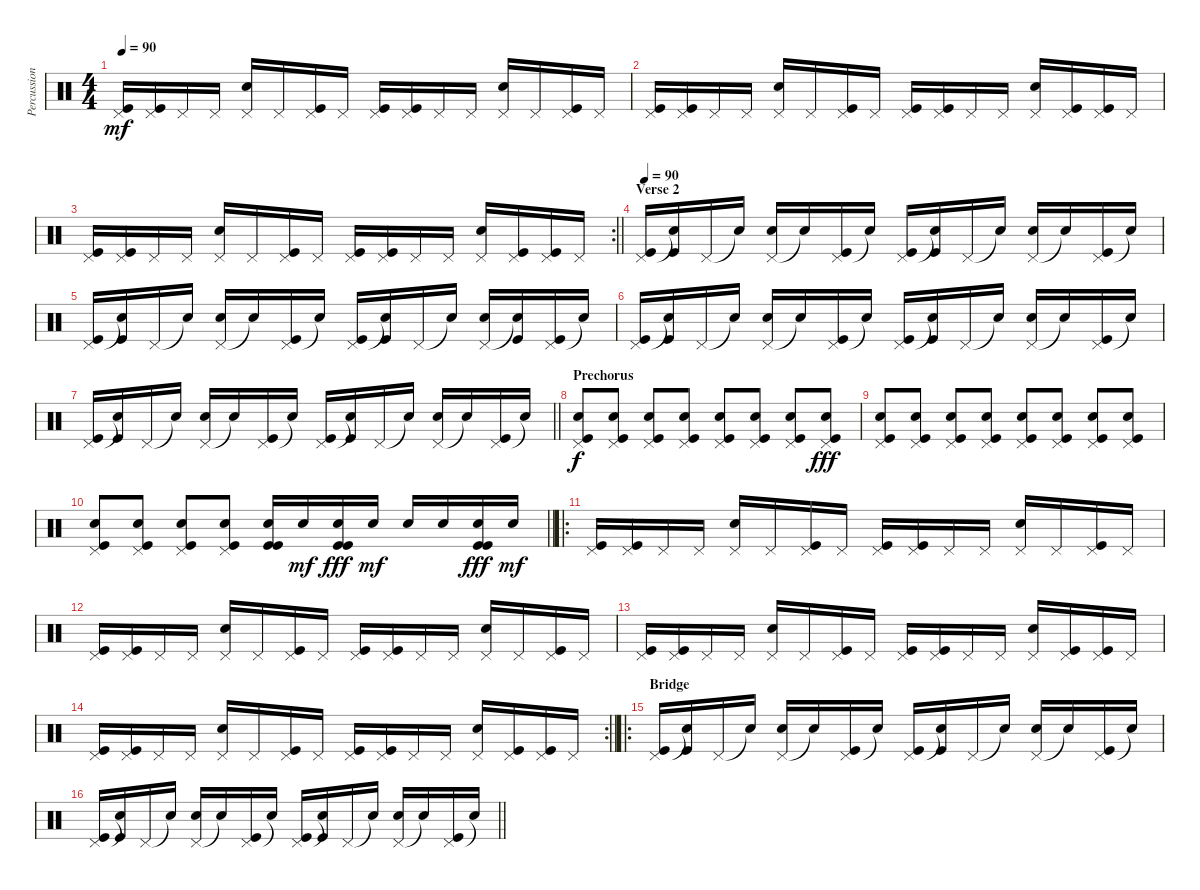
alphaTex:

\track ("Percussion" "Percussion") {instrument percussion}
\staff {score}
\articulation defaults
\ts (4 4)
\tempo 90
\clef neutral
\ks c
("Pedal Hi-Hat (hit)" "Kick (hit)").16{dy mf} ("Pedal Hi-Hat (hit)" "Kick (hit)").16 "Pedal Hi-Hat (hit)".16 "Pedal Hi-Hat (hit)".16 ("Pedal Hi-Hat (hit)" "Electric Snare (hit)").16 "Pedal Hi-Hat (hit)".16 ("Pedal Hi-Hat (hit)" "Kick (hit)").16 "Pedal Hi-Hat (hit)".16 ("Pedal Hi-Hat (hit)" "Kick (hit)").16 ("Pedal Hi-Hat (hit)" "Kick (hit)").16 "Pedal Hi-Hat (hit)".16 "Pedal Hi-Hat (hit)".16 ("Pedal Hi-Hat (hit)" "Electric Snare (hit)").16 "Pedal Hi-Hat (hit)".16 ("Pedal Hi-Hat (hit)" "Kick (hit)").16 "Pedal Hi-Hat (hit)".16 |
("Pedal Hi-Hat (hit)" "Kick (hit)").16 ("Pedal Hi-Hat (hit)" "Kick (hit)").16 "Pedal Hi-Hat (hit)".16 "Pedal Hi-Hat (hit)".16 ("Pedal Hi-Hat (hit)" "Electric Snare (hit)").16 "Pedal Hi-Hat (hit)".16 ("Pedal Hi-Hat (hit)" "Kick (hit)").16 "Pedal Hi-Hat (hit)".16 ("Pedal Hi-Hat (hit)" "Kick (hit)").16 ("Pedal Hi-Hat (hit)" "Kick (hit)").16 "Pedal Hi-Hat (hit)".16 "Pedal Hi-Hat (hit)".16 ("Pedal Hi-Hat (hit)" "Electric Snare (hit)").16 ("Pedal Hi-Hat (hit)" "Kick (hit)").16 ("Pedal Hi-Hat (hit)" "Kick (hit)").16 "Pedal Hi-Hat (hit)".16 |
\rc 2
\barLineRight lightlight
("Pedal Hi-Hat (hit)" "Kick (hit)").16 ("Pedal Hi-Hat (hit)" "Kick (hit)").16 "Pedal Hi-Hat (hit)".16 "Pedal Hi-Hat (hit)".16 ("Pedal Hi-Hat (hit)" "Electric Snare (hit)").16 "Pedal Hi-Hat (hit)".16 ("Pedal Hi-Hat (hit)" "Kick (hit)").16 "Pedal Hi-Hat (hit)".16 ("Pedal Hi-Hat (hit)" "Kick (hit)").16 ("Pedal Hi-Hat (hit)" "Kick (hit)").16 "Pedal Hi-Hat (hit)".16 "Pedal Hi-Hat (hit)".16 ("Pedal Hi-Hat (hit)" "Electric Snare (hit)").16 ("Pedal Hi-Hat (hit)" "Kick (hit)").16 ("Pedal Hi-Hat (hit)" "Kick (hit)").16 "Pedal Hi-Hat (hit)".16 |
\section ("" "Verse 2")
\tempo 90
("Pedal Hi-Hat (hit)" "Kick (hit)").16 ("Snare (hit)"{t} "Kick (hit)").16 "Pedal Hi-Hat (hit)".16 "Snare (hit)"{t}.16 ("Pedal Hi-Hat (hit)" "Electric Snare (hit)").16 "Snare (hit)"{t}.16 ("Pedal Hi-Hat (hit)" "Kick (hit)").16 "Snare (hit)"{t}.16 ("Pedal Hi-Hat (hit)" "Kick (hit)").16 ("Snare (hit)"{t} "Kick (hit)").16 "Pedal Hi-Hat (hit)".16 "Snare (hit)"{t}.16 ("Pedal Hi-Hat (hit)" "Electric Snare (hit)").16 "Snare (hit)"{t}.16 ("Pedal Hi-Hat (hit)" "Kick (hit)").16 "Snare (hit)"{t}.16 |
("Pedal Hi-Hat (hit)" "Kick (hit)").16 ("Snare (hit)"{t} "Kick (hit)").16 "Pedal Hi-Hat (hit)".16 "Snare (hit)"{t}.16 ("Pedal Hi-Hat (hit)" "Electric Snare (hit)").16 "Snare (hit)"{t}.16 ("Pedal Hi-Hat (hit)" "Kick (hit)").16 "Snare (hit)"{t}.16 ("Pedal Hi-Hat (hit)" "Kick (hit)").16 ("Snare (hit)"{t} "Kick (hit)").16 "Pedal Hi-Hat (hit)".16 "Snare (hit)"{t}.16 ("Pedal Hi-Hat (hit)" "Electric Snare (hit)").16 ("Snare (hit)"{t} "Kick (hit)").16 ("Pedal Hi-Hat (hit)" "Kick (hit)").16 "Snare (hit)"{t}.16 |
("Pedal Hi-Hat (hit)" "Kick (hit)").16 ("Snare (hit)"{t} "Kick (hit)").16 "Pedal Hi-Hat (hit)".16 "Snare (hit)"{t}.16 ("Pedal Hi-Hat (hit)" "Electric Snare (hit)").16 "Snare (hit)"{t}.16 ("Pedal Hi-Hat (hit)" "Kick (hit)").16 "Snare (hit)"{t}.16 ("Pedal Hi-Hat (hit)" "Kick (hit)").16 ("Snare (hit)"{t} "Kick (hit)").16 "Pedal Hi-Hat (hit)".16 "Snare (hit)"{t}.16 ("Pedal Hi-Hat (hit)" "Electric Snare (hit)").16 "Snare (hit)"{t}.16 ("Pedal Hi-Hat (hit)" "Kick (hit)").16 "Snare (hit)"{t}.16 |
\barLineRight lightlight
("Pedal Hi-Hat (hit)" "Kick (hit)").16 ("Snare (hit)"{t} "Kick (hit)").16 "Pedal Hi-Hat (hit)".16 "Snare (hit)"{t}.16 ("Pedal Hi-Hat (hit)" "Electric Snare (hit)").16 "Snare (hit)"{t}.16 ("Pedal Hi-Hat (hit)" "Kick (hit)").16 "Snare (hit)"{t}.16 ("Pedal Hi-Hat (hit)" "Kick (hit)").16 ("Snare (hit)"{t} "Kick (hit)").16 "Pedal Hi-Hat (hit)".16 "Snare (hit)"{t}.16 ("Pedal Hi-Hat (hit)" "Electric Snare (hit)").16 "Snare (hit)"{t}.16 ("Pedal Hi-Hat (hit)" "Kick (hit)").16 "Snare (hit)"{t}.16 |
\section ("" "Prechorus")
("Pedal Hi-Hat (hit)" "Electric Snare (hit)" "Kick (hit)").8{dy f} ("Pedal Hi-Hat (hit)" "Electric Snare (hit)" "Kick (hit)").8 ("Pedal Hi-Hat (hit)" "Electric Snare (hit)" "Kick (hit)").8 ("Pedal Hi-Hat (hit)" "Electric Snare (hit)" "Kick (hit)").8 ("Pedal Hi-Hat (hit)" "Electric Snare (hit)" "Kick (hit)").8 ("Pedal Hi-Hat (hit)" "Electric Snare (hit)" "Kick (hit)").8 ("Pedal Hi-Hat (hit)" "Electric Snare (hit)" "Kick (hit)").8 ("Pedal Hi-Hat (hit)" "Electric Snare (hit)" "Kick (hit)").8{dy fff} |
("Pedal Hi-Hat (hit)" "Electric Snare (hit)" "Kick (hit)").8 ("Pedal Hi-Hat (hit)" "Electric Snare (hit)" "Kick (hit)").8 ("Pedal Hi-Hat (hit)" "Electric Snare (hit)" "Kick (hit)").8 ("Pedal Hi-Hat (hit)" "Electric Snare (hit)" "Kick (hit)").8 ("Pedal Hi-Hat (hit)" "Electric Snare (hit)" "Kick (hit)").8 ("Pedal Hi-Hat (hit)" "Electric Snare (hit)" "Kick (hit)").8 ("Pedal Hi-Hat (hit)" "Electric Snare (hit)" "Kick (hit)").8 ("Pedal Hi-Hat (hit)" "Electric Snare (hit)" "Kick (hit)").8 |
\barLineRight lightlight
("Pedal Hi-Hat (hit)" "Electric Snare (hit)" "Kick (hit)").8 ("Pedal Hi-Hat (hit)" "Electric Snare (hit)" "Kick (hit)").8 ("Pedal Hi-Hat (hit)" "Electric Snare (hit)" "Kick (hit)").8 ("Pedal Hi-Hat (hit)" "Electric Snare (hit)" "Kick (hit)").8 ("Electric Snare (hit)" "Kick (hit)" "Kick (hit)").16 "Electric Snare (hit)".16{dy mf} ("Electric Snare (hit)" "Kick (hit)" "Kick (hit)").16{dy fff} "Electric Snare (hit)".16{dy mf} "Electric Snare (hit)".16 "Electric Snare (hit)".16 ("Electric Snare (hit)" "Kick (hit)" "Kick (hit)").16{dy fff} "Electric Snare (hit)".16{dy mf} |
\ro
("Pedal Hi-Hat (hit)" "Kick (hit)").16 ("Pedal Hi-Hat (hit)" "Kick (hit)").16 "Pedal Hi-Hat (hit)".16 "Pedal Hi-Hat (hit)".16 ("Pedal Hi-Hat (hit)" "Electric Snare (hit)").16 "Pedal Hi-Hat (hit)".16 ("Pedal Hi-Hat (hit)" "Kick (hit)").16 "Pedal Hi-Hat (hit)".16 ("Pedal Hi-Hat (hit)" "Kick (hit)").16 ("Pedal Hi-Hat (hit)" "Kick (hit)").16 "Pedal Hi-Hat (hit)".16 "Pedal Hi-Hat (hit)".16 ("Pedal Hi-Hat (hit)" "Electric Snare (hit)").16 "Pedal Hi-Hat (hit)".16 ("Pedal Hi-Hat (hit)" "Kick (hit)").16 "Pedal Hi-Hat (hit)".16 |
("Pedal Hi-Hat (hit)" "Kick (hit)").16 ("Pedal Hi-Hat (hit)" "Kick (hit)").16 "Pedal Hi-Hat (hit)".16 "Pedal Hi-Hat (hit)".16 ("Pedal Hi-Hat (hit)" "Electric Snare (hit)").16 "Pedal Hi-Hat (hit)".16 ("Pedal Hi-Hat (hit)" "Kick (hit)").16 "Pedal Hi-Hat (hit)".16 ("Pedal Hi-Hat (hit)" "Kick (hit)").16 ("Pedal Hi-Hat (hit)" "Kick (hit)").16 "Pedal Hi-Hat (hit)".16 "Pedal Hi-Hat (hit)".16 ("Pedal Hi-Hat (hit)" "Electric Snare (hit)").16 "Pedal Hi-Hat (hit)".16 ("Pedal Hi-Hat (hit)" "Kick (hit)").16 "Pedal Hi-Hat (hit)".16 |
("Pedal Hi-Hat (hit)" "Kick (hit)").16 ("Pedal Hi-Hat (hit)" "Kick (hit)").16 "Pedal Hi-Hat (hit)".16 "Pedal Hi-Hat (hit)".16 ("Pedal Hi-Hat (hit)" "Electric Snare (hit)").16 "Pedal Hi-Hat (hit)".16 ("Pedal Hi-Hat (hit)" "Kick (hit)").16 "Pedal Hi-Hat (hit)".16 ("Pedal Hi-Hat (hit)" "Kick (hit)").16 ("Pedal Hi-Hat (hit)" "Kick (hit)").16 "Pedal Hi-Hat (hit)".16 "Pedal Hi-Hat (hit)".16 ("Pedal Hi-Hat (hit)" "Electric Snare (hit)").16 ("Pedal Hi-Hat (hit)" "Kick (hit)").16 ("Pedal Hi-Hat (hit)" "Kick (hit)").16 "Pedal Hi-Hat (hit)".16 |
\rc 2
\barLineRight lightlight
("Pedal Hi-Hat (hit)" "Kick (hit)").16 ("Pedal Hi-Hat (hit)" "Kick (hit)").16 "Pedal Hi-Hat (hit)".16 "Pedal Hi-Hat (hit)".16 ("Pedal Hi-Hat (hit)" "Electric Snare (hit)").16 "Pedal Hi-Hat (hit)".16 ("Pedal Hi-Hat (hit)" "Kick (hit)").16 "Pedal Hi-Hat (hit)".16 ("Pedal Hi-Hat (hit)" "Kick (hit)").16 ("Pedal Hi-Hat (hit)" "Kick (hit)").16 "Pedal Hi-Hat (hit)".16 "Pedal Hi-Hat (hit)".16 ("Pedal Hi-Hat (hit)" "Electric Snare (hit)").16 ("Pedal Hi-Hat (hit)" "Kick (hit)").16 ("Pedal Hi-Hat (hit)" "Kick (hit)").16 "Pedal Hi-Hat (hit)".16 |
\ro
\section ("" "Bridge")
("Pedal Hi-Hat (hit)" "Kick (hit)").16 ("Snare (hit)"{t} "Kick (hit)").16 "Pedal Hi-Hat (hit)".16 "Snare (hit)"{t}.16 ("Pedal Hi-Hat (hit)" "Electric Snare (hit)").16 "Snare (hit)"{t}.16 ("Pedal Hi-Hat (hit)" "Kick (hit)").16 "Snare (hit)"{t}.16 ("Pedal Hi-Hat (hit)" "Kick (hit)").16 ("Snare (hit)"{t} "Kick (hit)").16 "Pedal Hi-Hat (hit)".16 "Snare (hit)"{t}.16 ("Pedal Hi-Hat (hit)" "Electric Snare (hit)").16 "Snare (hit)"{t}.16 ("Pedal Hi-Hat (hit)" "Kick (hit)").16 "Snare (hit)"{t}.16 |
\barLineRight lightlight
("Pedal Hi-Hat (hit)" "Kick (hit)").16 ("Snare (hit)"{t} "Kick (hit)").16 "Pedal Hi-Hat (hit)".16 "Snare (hit)"{t}.16 ("Pedal Hi-Hat (hit)" "Electric Snare (hit)").16 "Snare (hit)"{t}.16 ("Pedal Hi-Hat (hit)" "Kick (hit)").16 "Snare (hit)"{t}.16 ("Pedal Hi-Hat (hit)" "Kick (hit)").16 ("Snare (hit)"{t} "Kick (hit)").16 "Pedal Hi-Hat (hit)".16 "Snare (hit)"{t}.16 ("Pedal Hi-Hat (hit)" "Electric Snare (hit)").16 "Snare (hit)"{t}.16 ("Pedal Hi-Hat (hit)" "Kick (hit)").16 "Snare (hit)"{t}.16
